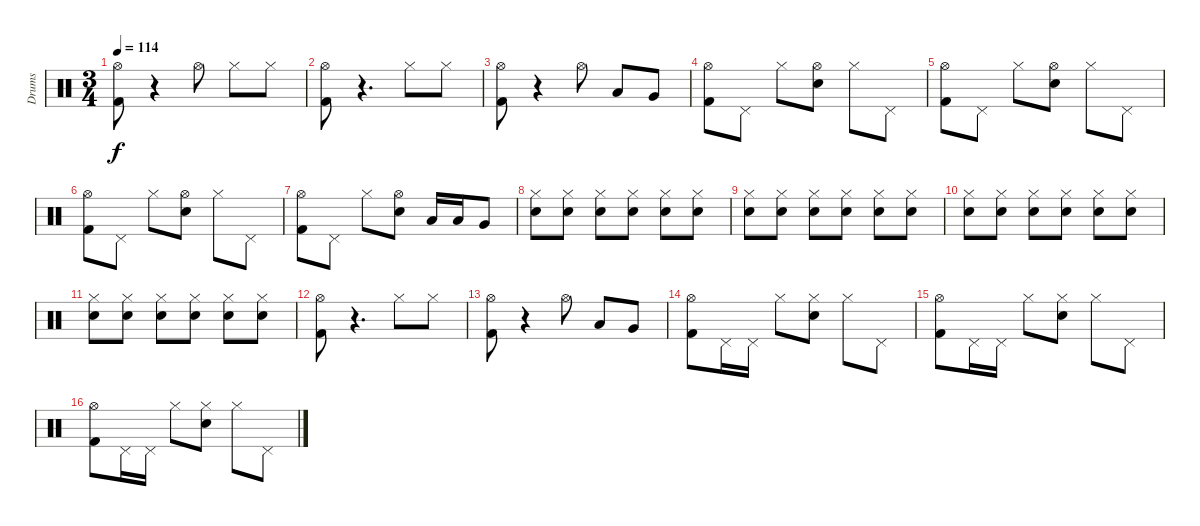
\track ("Drums" "Drums") {instrument percussion}
\staff {score}
\articulation defaults
\ts (3 4)
\tempo 114
\clef neutral
\ks c
("Hi-Hat (open)" "Kick (hit) 2").8{dy f} r.4 "Hi-Hat (open)".8 "Hi-Hat (closed)".8 "Hi-Hat (closed)".8 |
("Hi-Hat (open)" "Kick (hit) 2").8 r.4{d} "Hi-Hat (closed)".8 "Hi-Hat (closed)".8 |
("Hi-Hat (open)" "Kick (hit) 2").8 r.4 "Hi-Hat (open)".8 "Low Tom (hit)".8 "Very Low Tom (hit)".8 |
("Hi-Hat (open)" "Kick (hit) 2").8 "Pedal Hi-Hat (hit)".8 "Hi-Hat (closed)".8 ("Hi-Hat (open)" "Electric Snare (hit)").8 "Hi-Hat (closed)".8 "Pedal Hi-Hat (hit)".8 |
("Hi-Hat (open)" "Kick (hit) 2").8 "Pedal Hi-Hat (hit)".8 "Hi-Hat (closed)".8 ("Hi-Hat (open)" "Electric Snare (hit)").8 "Hi-Hat (closed)".8 "Pedal Hi-Hat (hit)".8 |
("Hi-Hat (open)" "Kick (hit) 2").8 "Pedal Hi-Hat (hit)".8 "Hi-Hat (closed)".8 ("Hi-Hat (open)" "Electric Snare (hit)").8 "Hi-Hat (closed)".8 "Pedal Hi-Hat (hit)".8 |
("Hi-Hat (open)" "Kick (hit) 2").8 "Pedal Hi-Hat (hit)".8 "Hi-Hat (closed)".8 ("Hi-Hat (open)" "Electric Snare (hit)").8 "Low Tom (hit)".16 "Low Tom (hit)".16 "Very Low Tom (hit)".8 |
("Hi-Hat (closed)" "Electric Snare (hit)").8 ("Hi-Hat (closed)" "Electric Snare (hit)").8 ("Hi-Hat (closed)" "Electric Snare (hit)").8 ("Hi-Hat (closed)" "Electric Snare (hit)").8 ("Hi-Hat (closed)" "Electric Snare (hit)").8 ("Hi-Hat (closed)" "Electric Snare (hit)").8 |
("Hi-Hat (closed)" "Electric Snare (hit)").8 ("Hi-Hat (closed)" "Electric Snare (hit)").8 ("Hi-Hat (closed)" "Electric Snare (hit)").8 ("Hi-Hat (closed)" "Electric Snare (hit)").8 ("Hi-Hat (closed)" "Electric Snare (hit)").8 ("Hi-Hat (closed)" "Electric Snare (hit)").8 |
("Hi-Hat (closed)" "Electric Snare (hit)").8 ("Hi-Hat (closed)" "Electric Snare (hit)").8 ("Hi-Hat (closed)" "Electric Snare (hit)").8 ("Hi-Hat (closed)" "Electric Snare (hit)").8 ("Hi-Hat (closed)" "Electric Snare (hit)").8 ("Hi-Hat (closed)" "Electric Snare (hit)").8 |
("Hi-Hat (closed)" "Electric Snare (hit)").8 ("Hi-Hat (closed)" "Electric Snare (hit)").8 ("Hi-Hat (closed)" "Electric Snare (hit)").8 ("Hi-Hat (closed)" "Electric Snare (hit)").8 ("Hi-Hat (closed)" "Electric Snare (hit)").8 ("Hi-Hat (closed)" "Electric Snare (hit)").8 |
("Hi-Hat (open)" "Kick (hit) 2").8 r.4{d} "Hi-Hat (closed)".8 "Hi-Hat (closed)".8 |
("Hi-Hat (open)" "Kick (hit) 2").8 r.4 "Hi-Hat (open)".8 "Low Tom (hit)".8 "Very Low Tom (hit)".8 |
("Hi-Hat (open)" "Kick (hit) 2").8 "Pedal Hi-Hat (hit)".16 "Pedal Hi-Hat (hit)".16 "Hi-Hat (closed)".8 ("Hi-Hat (closed)" "Electric Snare (hit)").8 "Hi-Hat (closed)".8 "Pedal Hi-Hat (hit)".8 |
("Hi-Hat (open)" "Kick (hit) 2").8 "Pedal Hi-Hat (hit)".16 "Pedal Hi-Hat (hit)".16 "Hi-Hat (closed)".8 ("Hi-Hat (closed)" "Electric Snare (hit)").8 "Hi-Hat (closed)".8 "Pedal Hi-Hat (hit)".8 |
("Hi-Hat (open)" "Kick (hit) 2").8 "Pedal Hi-Hat (hit)".16 "Pedal Hi-Hat (hit)".16 "Hi-Hat (closed)".8 ("Hi-Hat (closed)" "Electric Snare (hit)").8 "Hi-Hat (closed)".8 "Pedal Hi-Hat (hit)".8
